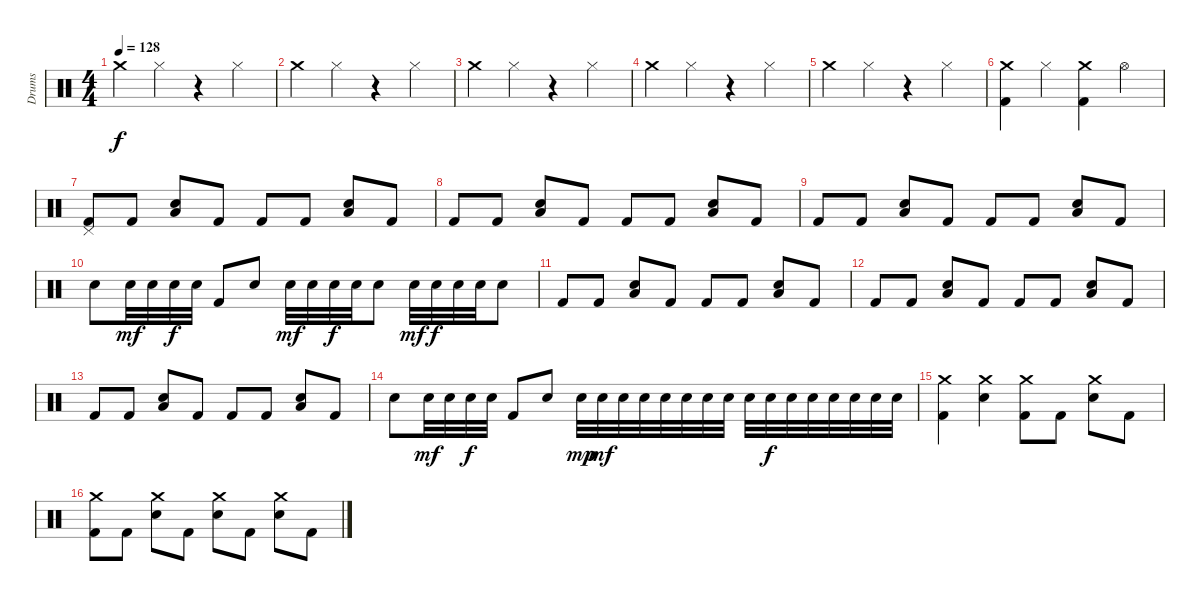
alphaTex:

\track ("Drums" "Drums") {instrument percussion}
\staff {score}
\articulation defaults
\ts (4 4)
\tempo 128
\clef neutral
\ks c "Crash medium (hit)".4{dy f} "Hi-Hat (closed)".4
r.4 "Hi-Hat (closed)".4 |
"Crash medium (hit)".4 "Hi-Hat (closed)".4 r.4 "Hi-Hat (closed)".4 |
"Crash medium (hit)".4 "Hi-Hat (closed)".4 r.4 "Hi-Hat (closed)".4 |
"Crash medium (hit)".4 "Hi-Hat (closed)".4 r.4 "Hi-Hat (closed)".4 |
"Crash medium (hit)".4 "Hi-Hat (closed)".4 r.4 "Hi-Hat (closed)".4 |
("Crash medium (hit)" "Kick (hit) 2").4 "Hi-Hat (closed)".4 ("Crash medium (hit)" "Kick (hit) 2").4 "Hi-Hat (open)".4 |
("Pedal Hi-Hat (hit)" "Kick (hit) 2").8 "Kick (hit) 2".8 ("Snare (hit) 2" "Low Floor Tom (hit)").8 "Kick (hit) 2".8 "Kick (hit) 2".8 "Kick (hit) 2".8 ("Snare (hit) 2" "Low Floor Tom (hit)").8 "Kick (hit) 2".8 |
"Kick (hit) 2".8 "Kick (hit) 2".8 ("Snare (hit) 2" "Low Floor Tom (hit)").8 "Kick (hit) 2".8 "Kick (hit) 2".8 "Kick (hit) 2".8 ("Snare (hit) 2" "Low Floor Tom (hit)").8 "Kick (hit) 2".8 |
"Kick (hit) 2".8 "Kick (hit) 2".8 ("Snare (hit) 2" "Low Floor Tom (hit)").8 "Kick (hit) 2".8 "Kick (hit) 2".8 "Kick (hit) 2".8 ("Snare (hit) 2" "Low Floor Tom (hit)").8 "Kick (hit) 2".8 |
"Snare (hit) 2".8 "Snare (hit) 2".32{dy mf} "Snare (hit) 2".32 "Snare (hit) 2".32{dy f} "Snare (hit) 2".32 "Kick (hit) 2".8 "Snare (hit) 2".8 "Snare (hit) 2".32{dy mf} "Snare (hit) 2".32 "Snare (hit) 2".32{dy f} "Snare (hit) 2".32 "Snare (hit) 2".8 "Snare (hit) 2".32{dy mf} "Snare (hit) 2".32{dy f} "Snare (hit) 2".32 "Snare (hit) 2".32 "Snare (hit) 2".8 |
"Kick (hit) 2".8 "Kick (hit) 2".8 ("Snare (hit) 2" "Low Floor Tom (hit)").8 "Kick (hit) 2".8 "Kick (hit) 2".8 "Kick (hit) 2".8 ("Snare (hit) 2" "Low Floor Tom (hit)").8 "Kick (hit) 2".8 |
"Kick (hit) 2".8 "Kick (hit) 2".8 ("Snare (hit) 2" "Low Floor Tom (hit)").8 "Kick (hit) 2".8 "Kick (hit) 2".8 "Kick (hit) 2".8 ("Snare (hit) 2" "Low Floor Tom (hit)").8 "Kick (hit) 2".8 |
"Kick (hit) 2".8 "Kick (hit) 2".8 ("Snare (hit) 2" "Low Floor Tom (hit)").8 "Kick (hit) 2".8 "Kick (hit) 2".8 "Kick (hit) 2".8 ("Snare (hit) 2" "Low Floor Tom (hit)").8 "Kick (hit) 2".8 |
"Snare (hit) 2".8 "Snare (hit) 2".32{dy mf} "Snare (hit) 2".32 "Snare (hit) 2".32{dy f} "Snare (hit) 2".32 "Kick (hit) 2".8 "Snare (hit) 2".8 "Snare (hit) 2".32{dy mp} "Snare (hit) 2".32{dy mf} "Snare (hit) 2".32 "Snare (hit) 2".32 "Snare (hit) 2".32 "Snare (hit) 2".32 "Snare (hit) 2".32 "Snare (hit) 2".32 "Snare (hit) 2".32 "Snare (hit) 2".32{dy f} "Snare (hit) 2".32 "Snare (hit) 2".32 "Snare (hit) 2".32 "Snare (hit) 2".32 "Snare (hit) 2".32 "Snare (hit) 2".32 |
("Crash medium (hit)" "Kick (hit) 2").4 ("Crash medium (hit)" "Snare (hit) 2").4 ("Crash medium (hit)" "Kick (hit) 2").8 "Kick (hit) 2".8 ("Crash medium (hit)" "Snare (hit) 2").8 "Kick (hit) 2".8 |
("Crash medium (hit)" "Kick (hit) 2").8 "Kick (hit) 2".8 ("Crash medium (hit)" "Snare (hit) 2").8 "Kick (hit) 2".8 ("Crash medium (hit)" "Snare (hit) 2").8 "Kick (hit) 2".8 ("Crash medium (hit)" "Snare (hit) 2").8 "Kick (hit) 2".8
